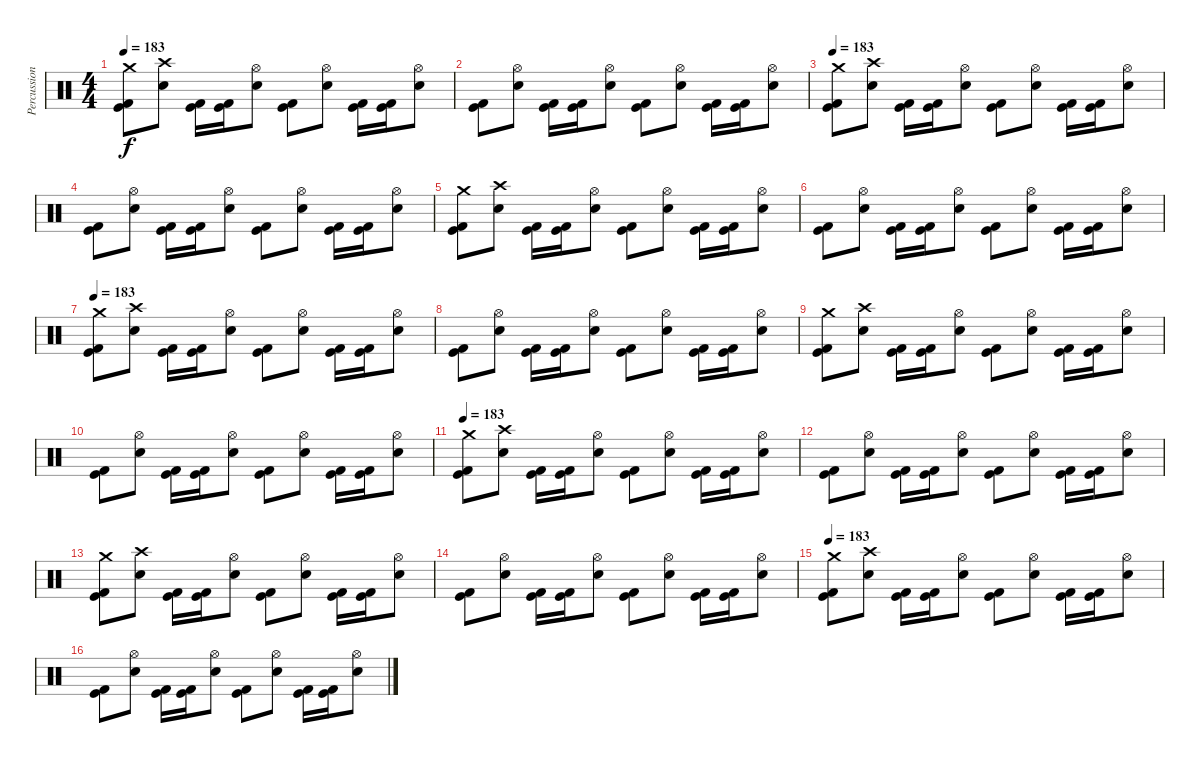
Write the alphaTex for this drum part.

\track ("Percussion" "Percussion") {instrument percussion}
\staff {score}
\articulation defaults
\ts (4 4)
\tempo 183
\clef neutral
\ks c
("Crash medium (hit)" "Kick (hit)" "Kick (hit) 2").8{dy f} ("Crash high (hit)" "Electric Snare (hit)").8 ("Kick (hit)" "Kick (hit) 2").16 ("Kick (hit)" "Kick (hit) 2").16 ("Hi-Hat (open)" "Electric Snare (hit)").8 ("Kick (hit)" "Kick (hit) 2").8 ("Hi-Hat (open)" "Electric Snare (hit)").8 ("Kick (hit)" "Kick (hit) 2").16 ("Kick (hit)" "Kick (hit) 2").16 ("Hi-Hat (open)" "Electric Snare (hit)").8 |
("Kick (hit)" "Kick (hit) 2").8 ("Hi-Hat (open)" "Electric Snare (hit)").8 ("Kick (hit)" "Kick (hit) 2").16 ("Kick (hit)" "Kick (hit) 2").16 ("Hi-Hat (open)" "Electric Snare (hit)").8 ("Kick (hit)" "Kick (hit) 2").8 ("Hi-Hat (open)" "Electric Snare (hit)").8 ("Kick (hit)" "Kick (hit) 2").16 ("Kick (hit)" "Kick (hit) 2").16 ("Hi-Hat (open)" "Electric Snare (hit)").8 |
\tempo 183
("Crash medium (hit)" "Kick (hit)" "Kick (hit) 2").8 ("Crash high (hit)" "Electric Snare (hit)").8 ("Kick (hit)" "Kick (hit) 2").16 ("Kick (hit)" "Kick (hit) 2").16 ("Hi-Hat (open)" "Electric Snare (hit)").8 ("Kick (hit)" "Kick (hit) 2").8 ("Hi-Hat (open)" "Electric Snare (hit)").8 ("Kick (hit)" "Kick (hit) 2").16 ("Kick (hit)" "Kick (hit) 2").16 ("Hi-Hat (open)" "Electric Snare (hit)").8 |
("Kick (hit)" "Kick (hit) 2").8 ("Hi-Hat (open)" "Electric Snare (hit)").8 ("Kick (hit)" "Kick (hit) 2").16 ("Kick (hit)" "Kick (hit) 2").16 ("Hi-Hat (open)" "Electric Snare (hit)").8 ("Kick (hit)" "Kick (hit) 2").8 ("Hi-Hat (open)" "Electric Snare (hit)").8 ("Kick (hit)" "Kick (hit) 2").16 ("Kick (hit)" "Kick (hit) 2").16 ("Hi-Hat (open)" "Electric Snare (hit)").8 |
("Crash medium (hit)" "Kick (hit)" "Kick (hit) 2").8 ("Crash high (hit)" "Electric Snare (hit)").8 ("Kick (hit)" "Kick (hit) 2").16 ("Kick (hit)" "Kick (hit) 2").16 ("Hi-Hat (open)" "Electric Snare (hit)").8 ("Kick (hit)" "Kick (hit) 2").8 ("Hi-Hat (open)" "Electric Snare (hit)").8 ("Kick (hit)" "Kick (hit) 2").16 ("Kick (hit)" "Kick (hit) 2").16 ("Hi-Hat (open)" "Electric Snare (hit)").8 |
("Kick (hit)" "Kick (hit) 2").8 ("Hi-Hat (open)" "Electric Snare (hit)").8 ("Kick (hit)" "Kick (hit) 2").16 ("Kick (hit)" "Kick (hit) 2").16 ("Hi-Hat (open)" "Electric Snare (hit)").8 ("Kick (hit)" "Kick (hit) 2").8 ("Hi-Hat (open)" "Electric Snare (hit)").8 ("Kick (hit)" "Kick (hit) 2").16 ("Kick (hit)" "Kick (hit) 2").16 ("Hi-Hat (open)" "Electric Snare (hit)").8 |
\tempo 183
("Crash medium (hit)" "Kick (hit)" "Kick (hit) 2").8 ("Crash high (hit)" "Electric Snare (hit)").8 ("Kick (hit)" "Kick (hit) 2").16 ("Kick (hit)" "Kick (hit) 2").16 ("Hi-Hat (open)" "Electric Snare (hit)").8 ("Kick (hit)" "Kick (hit) 2").8 ("Hi-Hat (open)" "Electric Snare (hit)").8 ("Kick (hit)" "Kick (hit) 2").16 ("Kick (hit)" "Kick (hit) 2").16 ("Hi-Hat (open)" "Electric Snare (hit)").8 |
("Kick (hit)" "Kick (hit) 2").8 ("Hi-Hat (open)" "Electric Snare (hit)").8 ("Kick (hit)" "Kick (hit) 2").16 ("Kick (hit)" "Kick (hit) 2").16 ("Hi-Hat (open)" "Electric Snare (hit)").8 ("Kick (hit)" "Kick (hit) 2").8 ("Hi-Hat (open)" "Electric Snare (hit)").8 ("Kick (hit)" "Kick (hit) 2").16 ("Kick (hit)" "Kick (hit) 2").16 ("Hi-Hat (open)" "Electric Snare (hit)").8 |
("Crash medium (hit)" "Kick (hit)" "Kick (hit) 2").8 ("Crash high (hit)" "Electric Snare (hit)").8 ("Kick (hit)" "Kick (hit) 2").16 ("Kick (hit)" "Kick (hit) 2").16 ("Hi-Hat (open)" "Electric Snare (hit)").8 ("Kick (hit)" "Kick (hit) 2").8 ("Hi-Hat (open)" "Electric Snare (hit)").8 ("Kick (hit)" "Kick (hit) 2").16 ("Kick (hit)" "Kick (hit) 2").16 ("Hi-Hat (open)" "Electric Snare (hit)").8 |
("Kick (hit)" "Kick (hit) 2").8 ("Hi-Hat (open)" "Electric Snare (hit)").8 ("Kick (hit)" "Kick (hit) 2").16 ("Kick (hit)" "Kick (hit) 2").16 ("Hi-Hat (open)" "Electric Snare (hit)").8 ("Kick (hit)" "Kick (hit) 2").8 ("Hi-Hat (open)" "Electric Snare (hit)").8 ("Kick (hit)" "Kick (hit) 2").16 ("Kick (hit)" "Kick (hit) 2").16 ("Hi-Hat (open)" "Electric Snare (hit)").8 |
\tempo 183
("Crash medium (hit)" "Kick (hit)" "Kick (hit) 2").8 ("Crash high (hit)" "Electric Snare (hit)").8 ("Kick (hit)" "Kick (hit) 2").16 ("Kick (hit)" "Kick (hit) 2").16 ("Hi-Hat (open)" "Electric Snare (hit)").8 ("Kick (hit)" "Kick (hit) 2").8 ("Hi-Hat (open)" "Electric Snare (hit)").8 ("Kick (hit)" "Kick (hit) 2").16 ("Kick (hit)" "Kick (hit) 2").16 ("Hi-Hat (open)" "Electric Snare (hit)").8 |
("Kick (hit)" "Kick (hit) 2").8 ("Hi-Hat (open)" "Electric Snare (hit)").8 ("Kick (hit)" "Kick (hit) 2").16 ("Kick (hit)" "Kick (hit) 2").16 ("Hi-Hat (open)" "Electric Snare (hit)").8 ("Kick (hit)" "Kick (hit) 2").8 ("Hi-Hat (open)" "Electric Snare (hit)").8 ("Kick (hit)" "Kick (hit) 2").16 ("Kick (hit)" "Kick (hit) 2").16 ("Hi-Hat (open)" "Electric Snare (hit)").8 |
("Crash medium (hit)" "Kick (hit)" "Kick (hit) 2").8 ("Crash high (hit)" "Electric Snare (hit)").8 ("Kick (hit)" "Kick (hit) 2").16 ("Kick (hit)" "Kick (hit) 2").16 ("Hi-Hat (open)" "Electric Snare (hit)").8 ("Kick (hit)" "Kick (hit) 2").8 ("Hi-Hat (open)" "Electric Snare (hit)").8 ("Kick (hit)" "Kick (hit) 2").16 ("Kick (hit)" "Kick (hit) 2").16 ("Hi-Hat (open)" "Electric Snare (hit)").8 |
("Kick (hit)" "Kick (hit) 2").8 ("Hi-Hat (open)" "Electric Snare (hit)").8 ("Kick (hit)" "Kick (hit) 2").16 ("Kick (hit)" "Kick (hit) 2").16 ("Hi-Hat (open)" "Electric Snare (hit)").8 ("Kick (hit)" "Kick (hit) 2").8 ("Hi-Hat (open)" "Electric Snare (hit)").8 ("Kick (hit)" "Kick (hit) 2").16 ("Kick (hit)" "Kick (hit) 2").16 ("Hi-Hat (open)" "Electric Snare (hit)").8 |
\tempo 183
("Crash medium (hit)" "Kick (hit)" "Kick (hit) 2").8 ("Crash high (hit)" "Electric Snare (hit)").8 ("Kick (hit)" "Kick (hit) 2").16 ("Kick (hit)" "Kick (hit) 2").16 ("Hi-Hat (open)" "Electric Snare (hit)").8 ("Kick (hit)" "Kick (hit) 2").8 ("Hi-Hat (open)" "Electric Snare (hit)").8 ("Kick (hit)" "Kick (hit) 2").16 ("Kick (hit)" "Kick (hit) 2").16 ("Hi-Hat (open)" "Electric Snare (hit)").8 |
("Kick (hit)" "Kick (hit) 2").8 ("Hi-Hat (open)" "Electric Snare (hit)").8 ("Kick (hit)" "Kick (hit) 2").16 ("Kick (hit)" "Kick (hit) 2").16 ("Hi-Hat (open)" "Electric Snare (hit)").8 ("Kick (hit)" "Kick (hit) 2").8 ("Hi-Hat (open)" "Electric Snare (hit)").8 ("Kick (hit)" "Kick (hit) 2").16 ("Kick (hit)" "Kick (hit) 2").16 ("Hi-Hat (open)" "Electric Snare (hit)").8
